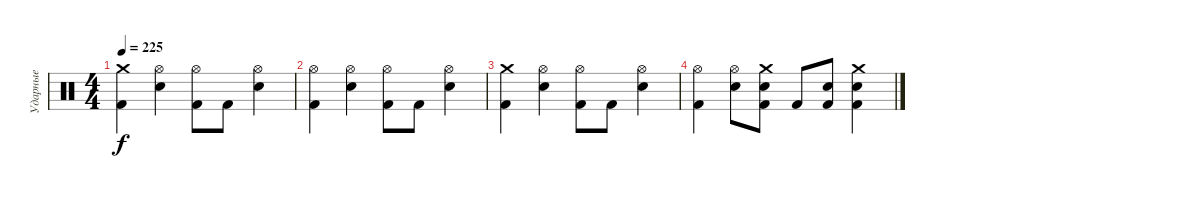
\track ("Ударные" "Ударные") {instrument percussion}
\staff {score}
\articulation defaults
\ts (4 4)
\tempo 225
\clef neutral
\ks c
("Crash medium (hit)" "Kick (hit) 2").4{dy f} ("Hi-Hat (open)" "Snare (hit) 2").4 ("Hi-Hat (open)" "Kick (hit) 2").8 "Kick (hit) 2".8 ("Hi-Hat (open)" "Snare (hit) 2").4 |
("Hi-Hat (open)" "Kick (hit) 2").4 ("Hi-Hat (open)" "Snare (hit) 2").4 ("Hi-Hat (open)" "Kick (hit) 2").8 "Kick (hit) 2".8 ("Hi-Hat (open)" "Snare (hit) 2").4 |
("Crash medium (hit)" "Kick (hit) 2").4 ("Hi-Hat (open)" "Snare (hit) 2").4 ("Hi-Hat (open)" "Kick (hit) 2").8 "Kick (hit) 2".8 ("Hi-Hat (open)" "Snare (hit) 2").4 |
("Hi-Hat (open)" "Kick (hit) 2").4 ("Hi-Hat (open)" "Snare (hit) 2").8 ("Crash medium (hit)" "Snare (hit) 2" "Kick (hit) 2").8 "Kick (hit) 2".8 ("Snare (hit) 2" "Kick (hit) 2").8 ("Crash medium (hit)" "Snare (hit) 2" "Kick (hit) 2").4
